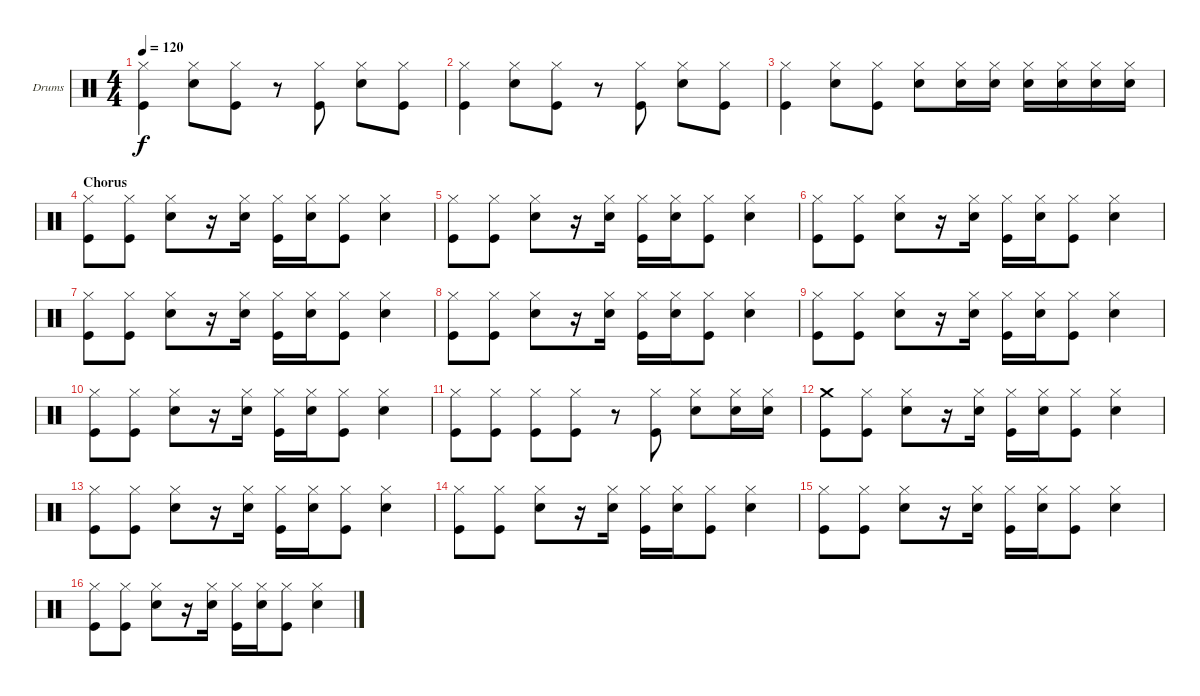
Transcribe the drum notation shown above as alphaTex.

\defaultSystemsLayout 4
\bracketExtendMode groupsimilarinstruments
\firstSystemTrackNameOrientation horizontal
\otherSystemsTrackNameOrientation horizontal
\track ("Drum" "Drums") {instrument percussion}
\staff {score}
\articulation defaults
\ts (4 4)
\tempo 120
\clef neutral
\scale
0.333333
\ks c
("Hi-Hat (closed)" "Kick (hit)").4{dy f} ("Hi-Hat (closed)" "Snare (hit) 2").8 ("Hi-Hat (closed)" "Kick (hit)").8 r.8 ("Hi-Hat (closed)" "Kick (hit)").8 ("Hi-Hat (closed)" "Snare (hit) 2").8 ("Hi-Hat (closed)" "Kick (hit)").8 |
\scale
0.333333 ("Hi-Hat (closed)" "Kick (hit)").4 ("Hi-Hat (closed)" "Snare (hit) 2").8 ("Hi-Hat (closed)" "Kick (hit)").8 r.8 ("Hi-Hat (closed)" "Kick (hit)").8 ("Hi-Hat (closed)" "Snare (hit) 2").8 ("Hi-Hat (closed)" "Kick (hit)").8 |
\scale
0.333333 ("Hi-Hat (closed)" "Kick (hit)").4 ("Hi-Hat (closed)" "Snare (hit) 2").8 ("Hi-Hat (closed)" "Kick (hit)").8 ("Hi-Hat (closed)" "Snare (hit) 2").8 ("Hi-Hat (closed)" "Snare (hit) 2").16 ("Hi-Hat (closed)" "Snare (hit) 2").16 ("Hi-Hat (closed)" "Snare (hit) 2").16 ("Hi-Hat (closed)" "Snare (hit) 2").16 ("Hi-Hat (closed)" "Snare (hit) 2").16 ("Hi-Hat (closed)" "Snare (hit) 2").16 |
\section ("" "Chorus")
\scale
0.333333 ("Hi-Hat (closed)" "Kick (hit)").8 ("Hi-Hat (closed)" "Kick (hit)").8 ("Hi-Hat (closed)" "Snare (hit) 2").8 r.16 ("Hi-Hat (closed)" "Snare (hit) 2").16 ("Hi-Hat (closed)" "Kick (hit)").16 ("Hi-Hat (closed)" "Snare (hit) 2").16 ("Hi-Hat (closed)" "Kick (hit)").8 ("Hi-Hat (closed)" "Snare (hit) 2").4 |
("Hi-Hat (closed)" "Kick (hit)").8 ("Hi-Hat (closed)" "Kick (hit)").8 ("Hi-Hat (closed)" "Snare (hit) 2").8 r.16 ("Hi-Hat (closed)" "Snare (hit) 2").16 ("Hi-Hat (closed)" "Kick (hit)").16 ("Hi-Hat (closed)" "Snare (hit) 2").16 ("Hi-Hat (closed)" "Kick (hit)").8 ("Hi-Hat (closed)" "Snare (hit) 2").4 |
("Hi-Hat (closed)" "Kick (hit)").8 ("Hi-Hat (closed)" "Kick (hit)").8 ("Hi-Hat (closed)" "Snare (hit) 2").8 r.16 ("Hi-Hat (closed)" "Snare (hit) 2").16 ("Hi-Hat (closed)" "Kick (hit)").16 ("Hi-Hat (closed)" "Snare (hit) 2").16 ("Hi-Hat (closed)" "Kick (hit)").8 ("Hi-Hat (closed)" "Snare (hit) 2").4 |
("Hi-Hat (closed)" "Kick (hit)").8 ("Hi-Hat (closed)" "Kick (hit)").8 ("Hi-Hat (closed)" "Snare (hit) 2").8 r.16 ("Hi-Hat (closed)" "Snare (hit) 2").16 ("Hi-Hat (closed)" "Kick (hit)").16 ("Hi-Hat (closed)" "Snare (hit) 2").16 ("Hi-Hat (closed)" "Kick (hit)").8 ("Hi-Hat (closed)" "Snare (hit) 2").4 |
("Hi-Hat (closed)" "Kick (hit)").8 ("Hi-Hat (closed)" "Kick (hit)").8 ("Hi-Hat (closed)" "Snare (hit) 2").8 r.16 ("Hi-Hat (closed)" "Snare (hit) 2").16 ("Hi-Hat (closed)" "Kick (hit)").16 ("Hi-Hat (closed)" "Snare (hit) 2").16 ("Hi-Hat (closed)" "Kick (hit)").8 ("Hi-Hat (closed)" "Snare (hit) 2").4 |
("Hi-Hat (closed)" "Kick (hit)").8 ("Hi-Hat (closed)" "Kick (hit)").8 ("Hi-Hat (closed)" "Snare (hit) 2").8 r.16 ("Hi-Hat (closed)" "Snare (hit) 2").16 ("Hi-Hat (closed)" "Kick (hit)").16 ("Hi-Hat (closed)" "Snare (hit) 2").16 ("Hi-Hat (closed)" "Kick (hit)").8 ("Hi-Hat (closed)" "Snare (hit) 2").4 |
("Hi-Hat (closed)" "Kick (hit)").8 ("Hi-Hat (closed)" "Kick (hit)").8 ("Hi-Hat (closed)" "Snare (hit) 2").8 r.16 ("Hi-Hat (closed)" "Snare (hit) 2").16 ("Hi-Hat (closed)" "Kick (hit)").16 ("Hi-Hat (closed)" "Snare (hit) 2").16 ("Hi-Hat (closed)" "Kick (hit)").8 ("Hi-Hat (closed)" "Snare (hit) 2").4 |
("Hi-Hat (closed)" "Kick (hit)").8 ("Hi-Hat (closed)" "Kick (hit)").8 ("Hi-Hat (closed)" "Kick (hit)").8 ("Hi-Hat (closed)" "Kick (hit)").8 r.8 ("Hi-Hat (closed)" "Kick (hit)").8 ("Hi-Hat (closed)" "Snare (hit) 2").8 ("Hi-Hat (closed)" "Snare (hit) 2").16 ("Hi-Hat (closed)" "Snare (hit) 2").16 |
("Crash medium (hit)" "Kick (hit)").8 ("Hi-Hat (closed)" "Kick (hit)").8 ("Hi-Hat (closed)" "Snare (hit) 2").8 r.16 ("Hi-Hat (closed)" "Snare (hit) 2").16 ("Hi-Hat (closed)" "Kick (hit)").16 ("Hi-Hat (closed)" "Snare (hit) 2").16 ("Hi-Hat (closed)" "Kick (hit)").8 ("Hi-Hat (closed)" "Snare (hit) 2").4 |
("Hi-Hat (closed)" "Kick (hit)").8 ("Hi-Hat (closed)" "Kick (hit)").8 ("Hi-Hat (closed)" "Snare (hit) 2").8 r.16 ("Hi-Hat (closed)" "Snare (hit) 2").16 ("Hi-Hat (closed)" "Kick (hit)").16 ("Hi-Hat (closed)" "Snare (hit) 2").16 ("Hi-Hat (closed)" "Kick (hit)").8 ("Hi-Hat (closed)" "Snare (hit) 2").4 |
("Hi-Hat (closed)" "Kick (hit)").8 ("Hi-Hat (closed)" "Kick (hit)").8 ("Hi-Hat (closed)" "Snare (hit) 2").8 r.16 ("Hi-Hat (closed)" "Snare (hit) 2").16 ("Hi-Hat (closed)" "Kick (hit)").16 ("Hi-Hat (closed)" "Snare (hit) 2").16 ("Hi-Hat (closed)" "Kick (hit)").8 ("Hi-Hat (closed)" "Snare (hit) 2").4 |
("Hi-Hat (closed)" "Kick (hit)").8 ("Hi-Hat (closed)" "Kick (hit)").8 ("Hi-Hat (closed)" "Snare (hit) 2").8 r.16 ("Hi-Hat (closed)" "Snare (hit) 2").16 ("Hi-Hat (closed)" "Kick (hit)").16 ("Hi-Hat (closed)" "Snare (hit) 2").16 ("Hi-Hat (closed)" "Kick (hit)").8 ("Hi-Hat (closed)" "Snare (hit) 2").4 |
("Hi-Hat (closed)" "Kick (hit)").8 ("Hi-Hat (closed)" "Kick (hit)").8 ("Hi-Hat (closed)" "Snare (hit) 2").8 r.16 ("Hi-Hat (closed)" "Snare (hit) 2").16 ("Hi-Hat (closed)" "Kick (hit)").16 ("Hi-Hat (closed)" "Snare (hit) 2").16 ("Hi-Hat (closed)" "Kick (hit)").8 ("Hi-Hat (closed)" "Snare (hit) 2").4
